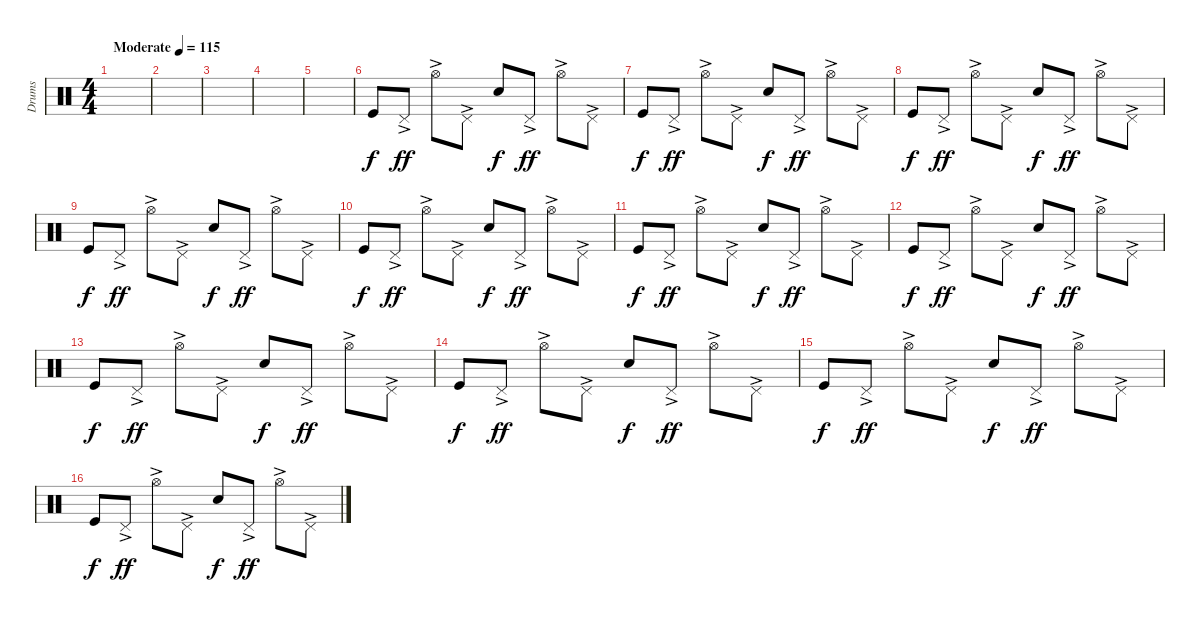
\track ("Drums" "Drums") {instrument percussion}
\staff {score}
\articulation defaults
\ts (4 4)
\tempo (115 "Moderate")
\clef neutral
\ks c
|
|
|
|
|
"Kick (hit)".8{volume 11} "Pedal Hi-Hat (hit)"{ac}.8{dy ff} "Hi-Hat (open)"{ac}.8 "Pedal Hi-Hat (hit)"{ac}.8 "Electric Snare (hit)".8{dy f} "Pedal Hi-Hat (hit)"{ac}.8{dy ff} "Hi-Hat (open)"{ac}.8 "Pedal Hi-Hat (hit)"{ac}.8 |
"Kick (hit)".8{dy f} "Pedal Hi-Hat (hit)"{ac}.8{dy ff} "Hi-Hat (open)"{ac}.8 "Pedal Hi-Hat (hit)"{ac}.8 "Electric Snare (hit)".8{dy f} "Pedal Hi-Hat (hit)"{ac}.8{dy ff} "Hi-Hat (open)"{ac}.8 "Pedal Hi-Hat (hit)"{ac}.8 |
"Kick (hit)".8{dy f} "Pedal Hi-Hat (hit)"{ac}.8{dy ff} "Hi-Hat (open)"{ac}.8 "Pedal Hi-Hat (hit)"{ac}.8 "Electric Snare (hit)".8{dy f} "Pedal Hi-Hat (hit)"{ac}.8{dy ff} "Hi-Hat (open)"{ac}.8 "Pedal Hi-Hat (hit)"{ac}.8 |
"Kick (hit)".8{dy f} "Pedal Hi-Hat (hit)"{ac}.8{dy ff} "Hi-Hat (open)"{ac}.8 "Pedal Hi-Hat (hit)"{ac}.8 "Electric Snare (hit)".8{dy f} "Pedal Hi-Hat (hit)"{ac}.8{dy ff} "Hi-Hat (open)"{ac}.8 "Pedal Hi-Hat (hit)"{ac}.8 |
"Kick (hit)".8{dy f} "Pedal Hi-Hat (hit)"{ac}.8{dy ff} "Hi-Hat (open)"{ac}.8 "Pedal Hi-Hat (hit)"{ac}.8 "Electric Snare (hit)".8{dy f} "Pedal Hi-Hat (hit)"{ac}.8{dy ff} "Hi-Hat (open)"{ac}.8 "Pedal Hi-Hat (hit)"{ac}.8 |
"Kick (hit)".8{dy f} "Pedal Hi-Hat (hit)"{ac}.8{dy ff} "Hi-Hat (open)"{ac}.8 "Pedal Hi-Hat (hit)"{ac}.8 "Electric Snare (hit)".8{dy f} "Pedal Hi-Hat (hit)"{ac}.8{dy ff} "Hi-Hat (open)"{ac}.8 "Pedal Hi-Hat (hit)"{ac}.8 |
"Kick (hit)".8{dy f} "Pedal Hi-Hat (hit)"{ac}.8{dy ff} "Hi-Hat (open)"{ac}.8 "Pedal Hi-Hat (hit)"{ac}.8 "Electric Snare (hit)".8{dy f} "Pedal Hi-Hat (hit)"{ac}.8{dy ff} "Hi-Hat (open)"{ac}.8 "Pedal Hi-Hat (hit)"{ac}.8 |
"Kick (hit)".8{dy f} "Pedal Hi-Hat (hit)"{ac}.8{dy ff} "Hi-Hat (open)"{ac}.8 "Pedal Hi-Hat (hit)"{ac}.8 "Electric Snare (hit)".8{dy f} "Pedal Hi-Hat (hit)"{ac}.8{dy ff} "Hi-Hat (open)"{ac}.8 "Pedal Hi-Hat (hit)"{ac}.8 |
"Kick (hit)".8{dy f} "Pedal Hi-Hat (hit)"{ac}.8{dy ff} "Hi-Hat (open)"{ac}.8 "Pedal Hi-Hat (hit)"{ac}.8 "Electric Snare (hit)".8{dy f} "Pedal Hi-Hat (hit)"{ac}.8{dy ff} "Hi-Hat (open)"{ac}.8 "Pedal Hi-Hat (hit)"{ac}.8 |
"Kick (hit)".8{dy f} "Pedal Hi-Hat (hit)"{ac}.8{dy ff} "Hi-Hat (open)"{ac}.8 "Pedal Hi-Hat (hit)"{ac}.8 "Electric Snare (hit)".8{dy f} "Pedal Hi-Hat (hit)"{ac}.8{dy ff} "Hi-Hat (open)"{ac}.8 "Pedal Hi-Hat (hit)"{ac}.8 |
"Kick (hit)".8{dy f} "Pedal Hi-Hat (hit)"{ac}.8{dy ff} "Hi-Hat (open)"{ac}.8 "Pedal Hi-Hat (hit)"{ac}.8 "Electric Snare (hit)".8{dy f} "Pedal Hi-Hat (hit)"{ac}.8{dy ff} "Hi-Hat (open)"{ac}.8 "Pedal Hi-Hat (hit)"{ac}.8
